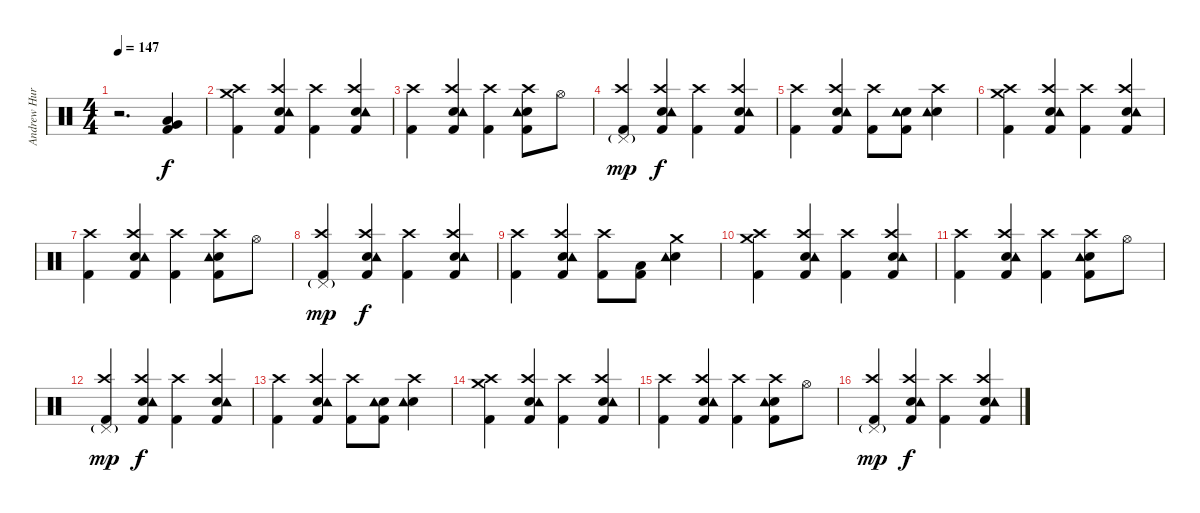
\track ("Andrew Hurley (Drums)" "Andrew Hur") {instrument percussion}
\staff {score}
\articulation defaults
\ts (4 4)
\tempo 147
\clef neutral
\ks c
r.2{d dy ppp} ("Very Low Tom (hit)" "Low Tom (hit)" "Kick (hit) 2").4{dy f} |
("Crash high (hit)" "Crash medium (hit)" "Kick (hit) 2").4 ("Crash high (hit)" "Snare (hit) 2" "Kick (hit) 2" "Tambourine (hit)").4 ("Crash high (hit)" "Kick (hit) 2").4 ("Crash high (hit)" "Snare (hit) 2" "Kick (hit) 2" "Tambourine (hit)").4 |
("Crash high (hit)" "Kick (hit) 2").4 ("Crash high (hit)" "Snare (hit) 2" "Kick (hit) 2" "Tambourine (hit)").4 ("Crash high (hit)" "Kick (hit) 2").4 ("Crash high (hit)" "Snare (hit) 2" "Kick (hit) 2" "Tambourine (hit)").8 "Hi-Hat (open)".8 |
("Crash high (hit)" "Pedal Hi-Hat (hit)"{g} "Kick (hit) 2").4{dy mp} ("Crash high (hit)" "Snare (hit) 2" "Kick (hit) 2" "Tambourine (hit)").4{dy f} ("Crash high (hit)" "Kick (hit) 2").4 ("Crash high (hit)" "Snare (hit) 2" "Kick (hit) 2" "Tambourine (hit)").4 |
("Crash high (hit)" "Kick (hit) 2").4 ("Crash high (hit)" "Snare (hit) 2" "Kick (hit) 2" "Tambourine (hit)").4 ("Crash high (hit)" "Kick (hit) 2").8 ("Snare (hit) 2" "Kick (hit) 2" "Tambourine (hit)").8 ("Crash high (hit)" "Snare (hit) 2" "Tambourine (hit)").4 |
("Crash high (hit)" "Crash medium (hit)" "Kick (hit) 2").4 ("Crash high (hit)" "Snare (hit) 2" "Kick (hit) 2" "Tambourine (hit)").4 ("Crash high (hit)" "Kick (hit) 2").4 ("Crash high (hit)" "Snare (hit) 2" "Kick (hit) 2" "Tambourine (hit)").4 |
("Crash high (hit)" "Kick (hit) 2").4 ("Crash high (hit)" "Snare (hit) 2" "Kick (hit) 2" "Tambourine (hit)").4 ("Crash high (hit)" "Kick (hit) 2").4 ("Crash high (hit)" "Snare (hit) 2" "Kick (hit) 2" "Tambourine (hit)").8 "Hi-Hat (open)".8 |
("Crash high (hit)" "Pedal Hi-Hat (hit)"{g} "Kick (hit) 2").4{dy mp} ("Crash high (hit)" "Snare (hit) 2" "Kick (hit) 2" "Tambourine (hit)").4{dy f} ("Crash high (hit)" "Kick (hit) 2").4 ("Crash high (hit)" "Snare (hit) 2" "Kick (hit) 2" "Tambourine (hit)").4 |
("Crash high (hit)" "Kick (hit) 2").4 ("Crash high (hit)" "Snare (hit) 2" "Kick (hit) 2" "Tambourine (hit)").4 ("Crash high (hit)" "Kick (hit) 2").8 ("Low Tom (hit)" "Kick (hit) 2").8 ("Crash medium (hit)" "Snare (hit) 2" "Tambourine (hit)").4 |
("Crash high (hit)" "Crash medium (hit)" "Kick (hit) 2").4 ("Crash high (hit)" "Snare (hit) 2" "Kick (hit) 2" "Tambourine (hit)").4 ("Crash high (hit)" "Kick (hit) 2").4 ("Crash high (hit)" "Snare (hit) 2" "Kick (hit) 2" "Tambourine (hit)").4 |
("Crash high (hit)" "Kick (hit) 2").4 ("Crash high (hit)" "Snare (hit) 2" "Kick (hit) 2" "Tambourine (hit)").4 ("Crash high (hit)" "Kick (hit) 2").4 ("Crash high (hit)" "Snare (hit) 2" "Kick (hit) 2" "Tambourine (hit)").8 "Hi-Hat (open)".8 |
("Crash high (hit)" "Pedal Hi-Hat (hit)"{g} "Kick (hit) 2").4{dy mp} ("Crash high (hit)" "Snare (hit) 2" "Kick (hit) 2" "Tambourine (hit)").4{dy f} ("Crash high (hit)" "Kick (hit) 2").4 ("Crash high (hit)" "Snare (hit) 2" "Kick (hit) 2" "Tambourine (hit)").4 |
("Crash high (hit)" "Kick (hit) 2").4 ("Crash high (hit)" "Snare (hit) 2" "Kick (hit) 2" "Tambourine (hit)").4 ("Crash high (hit)" "Kick (hit) 2").8 ("Snare (hit) 2" "Kick (hit) 2" "Tambourine (hit)").8 ("Crash high (hit)" "Snare (hit) 2" "Tambourine (hit)").4 |
("Crash high (hit)" "Crash medium (hit)" "Kick (hit) 2").4 ("Crash high (hit)" "Snare (hit) 2" "Kick (hit) 2" "Tambourine (hit)").4 ("Crash high (hit)" "Kick (hit) 2").4 ("Crash high (hit)" "Snare (hit) 2" "Kick (hit) 2" "Tambourine (hit)").4 |
("Crash high (hit)" "Kick (hit) 2").4 ("Crash high (hit)" "Snare (hit) 2" "Kick (hit) 2" "Tambourine (hit)").4 ("Crash high (hit)" "Kick (hit) 2").4 ("Crash high (hit)" "Snare (hit) 2" "Kick (hit) 2" "Tambourine (hit)").8 "Hi-Hat (open)".8 |
("Crash high (hit)" "Pedal Hi-Hat (hit)"{g} "Kick (hit) 2").4{dy mp} ("Crash high (hit)" "Snare (hit) 2" "Kick (hit) 2" "Tambourine (hit)").4{dy f} ("Crash high (hit)" "Kick (hit) 2").4 ("Crash high (hit)" "Snare (hit) 2" "Kick (hit) 2" "Tambourine (hit)").4
